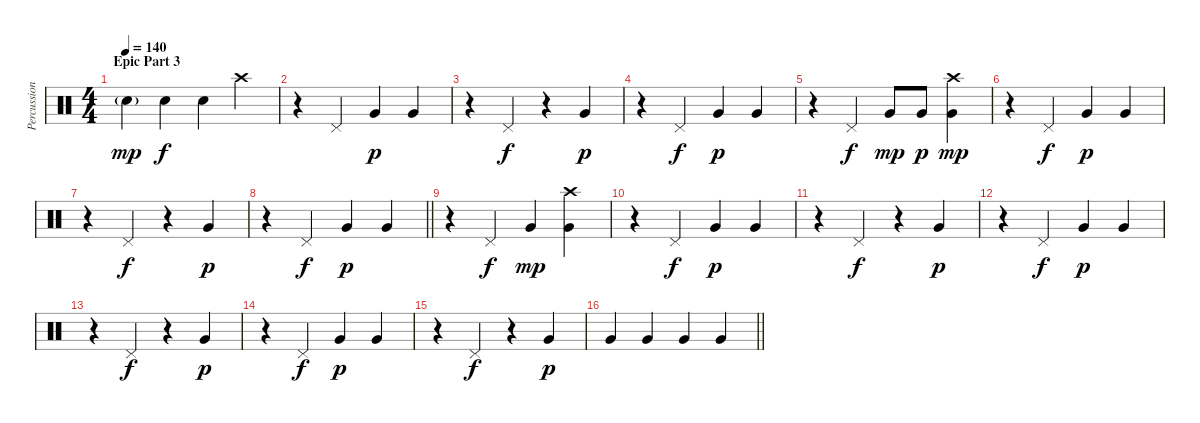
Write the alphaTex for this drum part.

\track ("Percussions" "Percussion") {instrument percussion}
\staff {score}
\articulation defaults
\ts (4 4)
\section ("" "Epic Part 3")
\tempo 140
\clef neutral
\ks c "Electric Snare (hit)"{g}.4{dy mp} "Electric Snare (hit)".4{dy f} "Electric Snare (hit)".4 "Crash high (hit)".4
|
r.4 "Pedal Hi-Hat (hit)".4 "Very Low Tom (hit)".4{dy p} "Very Low Tom (hit)".4 |
r.4 "Pedal Hi-Hat (hit)".4{dy f} r.4 "Very Low Tom (hit)".4{dy p} |
r.4 "Pedal Hi-Hat (hit)".4{dy f} "Very Low Tom (hit)".4{dy p} "Very Low Tom (hit)".4 |
r.4 "Pedal Hi-Hat (hit)".4{dy f} "Very Low Tom (hit)".8{dy mp} "Very Low Tom (hit)".8{dy p} ("Very Low Tom (hit)" "Crash high (hit)").4{dy mp} |
r.4 "Pedal Hi-Hat (hit)".4{dy f} "Very Low Tom (hit)".4{dy p} "Very Low Tom (hit)".4 |
r.4 "Pedal Hi-Hat (hit)".4{dy f} r.4 "Very Low Tom (hit)".4{dy p} |
\barLineRight lightlight
r.4 "Pedal Hi-Hat (hit)".4{dy f} "Very Low Tom (hit)".4{dy p} "Very Low Tom (hit)".4 |
r.4 "Pedal Hi-Hat (hit)".4{dy f} "Very Low Tom (hit)".4{dy mp} ("Very Low Tom (hit)" "Crash high (hit)").4 |
r.4 "Pedal Hi-Hat (hit)".4{dy f} "Very Low Tom (hit)".4{dy p} "Very Low Tom (hit)".4 |
r.4 "Pedal Hi-Hat (hit)".4{dy f} r.4 "Very Low Tom (hit)".4{dy p} |
r.4 "Pedal Hi-Hat (hit)".4{dy f} "Very Low Tom (hit)".4{dy p} "Very Low Tom (hit)".4 |
r.4 "Pedal Hi-Hat (hit)".4{dy f} r.4 "Very Low Tom (hit)".4{dy p} |
r.4 "Pedal Hi-Hat (hit)".4{dy f} "Very Low Tom (hit)".4{dy p} "Very Low Tom (hit)".4 |
r.4 "Pedal Hi-Hat (hit)".4{dy f} r.4 "Very Low Tom (hit)".4{dy p} |
\barLineRight lightlight "Very Low Tom (hit)".4 "Very Low Tom (hit)".4 "Very Low Tom (hit)".4 "Very Low Tom (hit)".4
